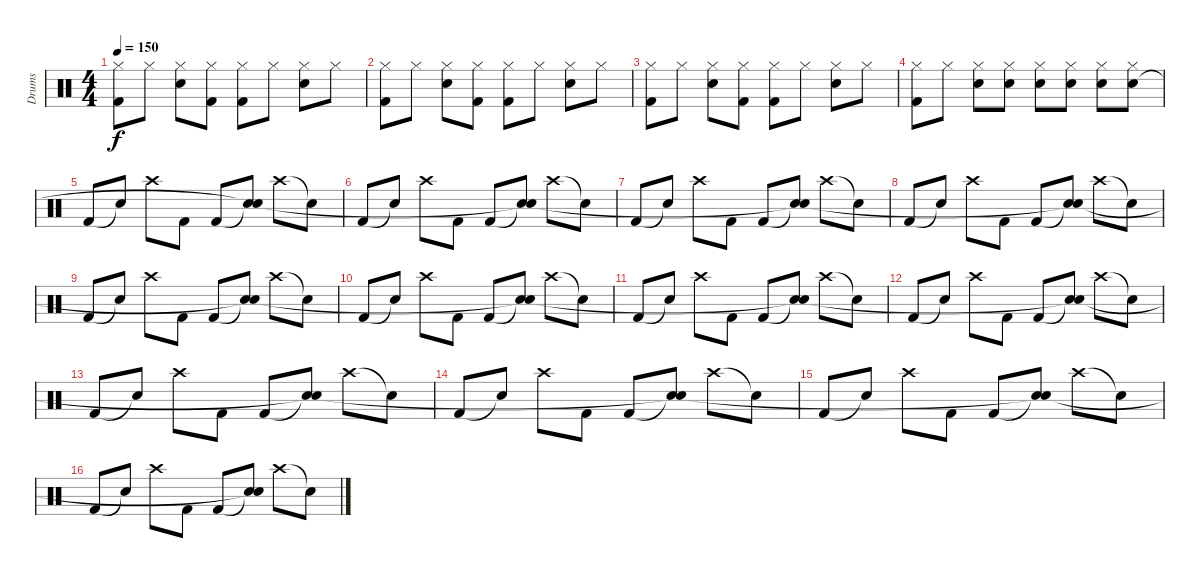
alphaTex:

\track ("Drums" "Drums") {instrument percussion}
\staff {score}
\articulation defaults
\ts (4 4)
\tempo 150
\clef neutral
\ks c
("Hi-Hat (closed)" "Kick (hit) 2").8{dy f} "Hi-Hat (closed)".8 ("Hi-Hat (closed)" "Snare (hit) 2").8 ("Hi-Hat (closed)" "Kick (hit) 2").8 ("Hi-Hat (closed)" "Kick (hit) 2").8 "Hi-Hat (closed)".8 ("Hi-Hat (closed)" "Snare (hit) 2").8 "Hi-Hat (closed)".8 |
("Hi-Hat (closed)" "Kick (hit) 2").8 "Hi-Hat (closed)".8 ("Hi-Hat (closed)" "Snare (hit) 2").8 ("Hi-Hat (closed)" "Kick (hit) 2").8 ("Hi-Hat (closed)" "Kick (hit) 2").8 "Hi-Hat (closed)".8 ("Hi-Hat (closed)" "Snare (hit) 2").8 "Hi-Hat (closed)".8 |
("Hi-Hat (closed)" "Kick (hit) 2").8 "Hi-Hat (closed)".8 ("Hi-Hat (closed)" "Snare (hit) 2").8 ("Hi-Hat (closed)" "Kick (hit) 2").8 ("Hi-Hat (closed)" "Kick (hit) 2").8 "Hi-Hat (closed)".8 ("Hi-Hat (closed)" "Snare (hit) 2").8 "Hi-Hat (closed)".8 |
("Hi-Hat (closed)" "Kick (hit) 2").8 "Hi-Hat (closed)".8 ("Hi-Hat (closed)" "Snare (hit) 2").8 ("Hi-Hat (closed)" "Snare (hit) 2").8 ("Hi-Hat (closed)" "Snare (hit) 2").8 ("Hi-Hat (closed)" "Snare (hit) 2").8 ("Hi-Hat (closed)" "Snare (hit) 2").8 ("Hi-Hat (closed)" "Snare (hit) 2").8 |
"Kick (hit) 2".8 "Snare (hit)"{t}.8 "Crash high (hit)".8 "Kick (hit) 2".8 "Kick (hit) 2".8 ("Snare (hit)"{t} "Snare (hit)"{t}).8 "Crash high (hit)".8 "Snare (hit)"{t}.8 |
"Kick (hit) 2".8 "Snare (hit)"{t}.8 "Crash high (hit)".8 "Kick (hit) 2".8 "Kick (hit) 2".8 ("Snare (hit)"{t} "Snare (hit)"{t}).8 "Crash high (hit)".8 "Snare (hit)"{t}.8 |
"Kick (hit) 2".8 "Snare (hit)"{t}.8 "Crash high (hit)".8 "Kick (hit) 2".8 "Kick (hit) 2".8 ("Snare (hit)"{t} "Snare (hit)"{t}).8 "Crash high (hit)".8 "Snare (hit)"{t}.8 |
"Kick (hit) 2".8 "Snare (hit)"{t}.8 "Crash high (hit)".8 "Kick (hit) 2".8 "Kick (hit) 2".8 ("Snare (hit)"{t} "Snare (hit)"{t}).8 "Crash high (hit)".8 "Snare (hit)"{t}.8 |
"Kick (hit) 2".8 "Snare (hit)"{t}.8 "Crash high (hit)".8 "Kick (hit) 2".8 "Kick (hit) 2".8 ("Snare (hit)"{t} "Snare (hit)"{t}).8 "Crash high (hit)".8 "Snare (hit)"{t}.8 |
"Kick (hit) 2".8 "Snare (hit)"{t}.8 "Crash high (hit)".8 "Kick (hit) 2".8 "Kick (hit) 2".8 ("Snare (hit)"{t} "Snare (hit)"{t}).8 "Crash high (hit)".8 "Snare (hit)"{t}.8 |
"Kick (hit) 2".8 "Snare (hit)"{t}.8 "Crash high (hit)".8 "Kick (hit) 2".8 "Kick (hit) 2".8 ("Snare (hit)"{t} "Snare (hit)"{t}).8 "Crash high (hit)".8 "Snare (hit)"{t}.8 |
"Kick (hit) 2".8 "Snare (hit)"{t}.8 "Crash high (hit)".8 "Kick (hit) 2".8 "Kick (hit) 2".8 ("Snare (hit)"{t} "Snare (hit)"{t}).8 "Crash high (hit)".8 "Snare (hit)"{t}.8 |
"Kick (hit) 2".8 "Snare (hit)"{t}.8 "Crash high (hit)".8 "Kick (hit) 2".8 "Kick (hit) 2".8 ("Snare (hit)"{t} "Snare (hit)"{t}).8 "Crash high (hit)".8 "Snare (hit)"{t}.8 |
"Kick (hit) 2".8 "Snare (hit)"{t}.8 "Crash high (hit)".8 "Kick (hit) 2".8 "Kick (hit) 2".8 ("Snare (hit)"{t} "Snare (hit)"{t}).8 "Crash high (hit)".8 "Snare (hit)"{t}.8 |
"Kick (hit) 2".8 "Snare (hit)"{t}.8 "Crash high (hit)".8 "Kick (hit) 2".8 "Kick (hit) 2".8 ("Snare (hit)"{t} "Snare (hit)"{t}).8 "Crash high (hit)".8 "Snare (hit)"{t}.8 |
"Kick (hit) 2".8 "Snare (hit)"{t}.8 "Crash high (hit)".8 "Kick (hit) 2".8 "Kick (hit) 2".8 ("Snare (hit)"{t} "Snare (hit)"{t}).8 "Crash high (hit)".8 "Snare (hit)"{t}.8
